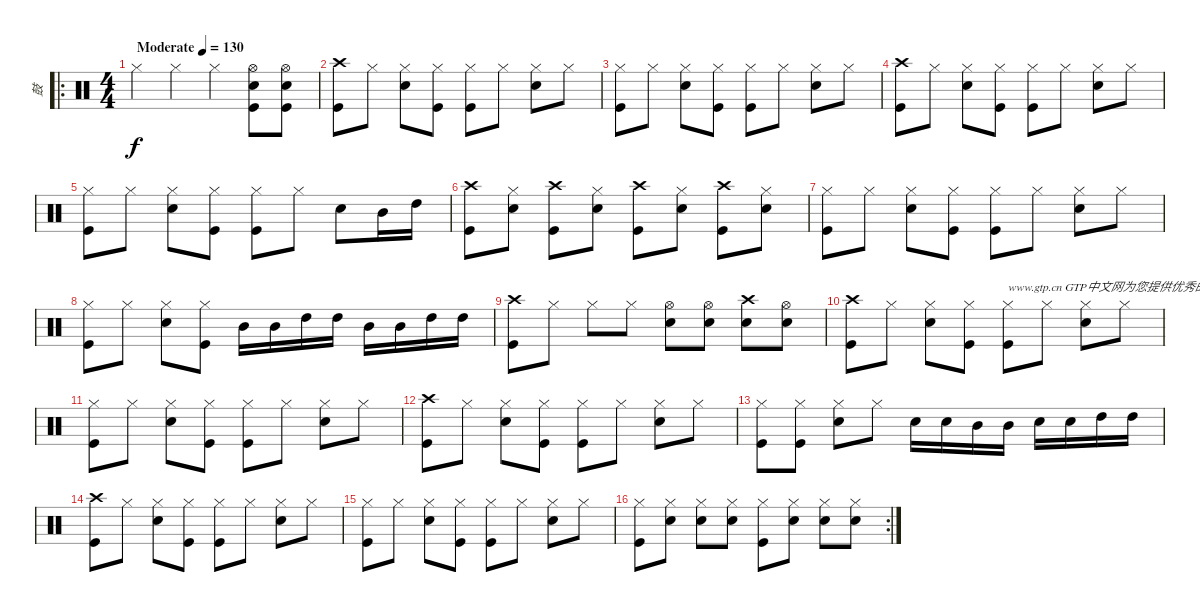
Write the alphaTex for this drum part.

\track ("鼓" "鼓") {instrument percussion}
\staff {score}
\articulation defaults
\ro
\ts (4 4)
\tempo (130 "Moderate")
\clef neutral
\ks c "Hi-Hat (closed)".4{dy f} "Hi-Hat (closed)".4 "Hi-Hat (closed)".4
("Hi-Hat (open)" "Snare (hit) 2" "Kick (hit)").8 ("Hi-Hat (open)" "Snare (hit) 2" "Kick (hit)").8 |
("Crash high (hit)" "Kick (hit)").8 "Hi-Hat (closed)".8 ("Hi-Hat (closed)" "Snare (hit) 2").8 ("Hi-Hat (closed)" "Kick (hit)").8 ("Hi-Hat (closed)" "Kick (hit)").8 "Hi-Hat (closed)".8 ("Hi-Hat (closed)" "Snare (hit) 2").8 "Hi-Hat (closed)".8 |
("Hi-Hat (closed)" "Kick (hit)").8 "Hi-Hat (closed)".8 ("Hi-Hat (closed)" "Snare (hit) 2").8 ("Hi-Hat (closed)" "Kick (hit)").8 ("Hi-Hat (closed)" "Kick (hit)").8 "Hi-Hat (closed)".8 ("Hi-Hat (closed)" "Snare (hit) 2").8 "Hi-Hat (closed)".8 |
("Crash high (hit)" "Kick (hit)").8 "Hi-Hat (closed)".8 ("Hi-Hat (closed)" "Snare (hit) 2").8 ("Hi-Hat (closed)" "Kick (hit)").8 ("Hi-Hat (closed)" "Kick (hit)").8 "Hi-Hat (closed)".8 ("Hi-Hat (closed)" "Snare (hit) 2").8 "Hi-Hat (closed)".8 |
("Hi-Hat (closed)" "Kick (hit)").8 "Hi-Hat (closed)".8 ("Hi-Hat (closed)" "Snare (hit) 2").8 ("Hi-Hat (closed)" "Kick (hit)").8 ("Hi-Hat (closed)" "Kick (hit)").8 "Hi-Hat (closed)".8 "Snare (hit) 2".8 "Mid Tom (hit)".16 "High Tom (hit)".16 |
("Crash high (hit)" "Kick (hit)").8 ("Hi-Hat (closed)" "Snare (hit) 2").8 ("Crash high (hit)" "Kick (hit)").8 ("Hi-Hat (closed)" "Snare (hit) 2").8 ("Crash high (hit)" "Kick (hit)").8 ("Hi-Hat (closed)" "Snare (hit) 2").8 ("Crash high (hit)" "Kick (hit)").8 ("Hi-Hat (closed)" "Snare (hit) 2").8 |
("Hi-Hat (closed)" "Kick (hit)").8 "Hi-Hat (closed)".8 ("Hi-Hat (closed)" "Snare (hit) 2").8 ("Hi-Hat (closed)" "Kick (hit)").8 ("Hi-Hat (closed)" "Kick (hit)").8 "Hi-Hat (closed)".8 ("Hi-Hat (closed)" "Snare (hit) 2").8 "Hi-Hat (closed)".8 |
("Hi-Hat (closed)" "Kick (hit)").8 "Hi-Hat (closed)".8 ("Hi-Hat (closed)" "Snare (hit) 2").8 ("Hi-Hat (closed)" "Kick (hit)").8 "Mid Tom (hit)".16 "Mid Tom (hit)".16 "High Tom (hit)".16 "High Tom (hit)".16 "Mid Tom (hit)".16 "Mid Tom (hit)".16 "High Tom (hit)".16 "High Tom (hit)".16 |
("Crash high (hit)" "Kick (hit)").8 "Hi-Hat (closed)".8 "Hi-Hat (closed)".8 "Hi-Hat (closed)".8 ("Hi-Hat (open)" "Snare (hit) 2").8 ("Hi-Hat (open)" "Snare (hit) 2").8 ("Crash high (hit)" "Snare (hit) 2").8 ("Hi-Hat (open)" "Snare (hit) 2").8 |
("Crash high (hit)" "Kick (hit)").8 "Hi-Hat (closed)".8 ("Hi-Hat (closed)" "Snare (hit) 2").8 ("Hi-Hat (closed)" "Kick (hit)").8 ("Hi-Hat (closed)" "Kick (hit)").8{txt "www.gtp.cn GTP中文网为您提供优秀的谱子"} "Hi-Hat (closed)".8 ("Hi-Hat (closed)" "Snare (hit) 2").8 "Hi-Hat (closed)".8 |
("Hi-Hat (closed)" "Kick (hit)").8 "Hi-Hat (closed)".8 ("Hi-Hat (closed)" "Snare (hit) 2").8 ("Hi-Hat (closed)" "Kick (hit)").8 ("Hi-Hat (closed)" "Kick (hit)").8 "Hi-Hat (closed)".8 ("Hi-Hat (closed)" "Snare (hit) 2").8 "Hi-Hat (closed)".8 |
("Crash high (hit)" "Kick (hit)").8 "Hi-Hat (closed)".8 ("Hi-Hat (closed)" "Snare (hit) 2").8 ("Hi-Hat (closed)" "Kick (hit)").8 ("Hi-Hat (closed)" "Kick (hit)").8 "Hi-Hat (closed)".8 ("Hi-Hat (closed)" "Snare (hit) 2").8 "Hi-Hat (closed)".8 |
("Hi-Hat (closed)" "Kick (hit)").8 ("Hi-Hat (closed)" "Kick (hit)").8 ("Hi-Hat (closed)" "Snare (hit) 2").8 "Hi-Hat (closed)".8 "Snare (hit) 2".16 "Snare (hit) 2".16 "Mid Tom (hit)".16 "Mid Tom (hit)".16 "Snare (hit) 2".16 "Snare (hit) 2".16 "High Tom (hit)".16 "High Tom (hit)".16 |
("Crash high (hit)" "Kick (hit)").8 "Hi-Hat (closed)".8 ("Hi-Hat (closed)" "Snare (hit) 2").8 ("Hi-Hat (closed)" "Kick (hit)").8 ("Hi-Hat (closed)" "Kick (hit)").8 "Hi-Hat (closed)".8 ("Hi-Hat (closed)" "Snare (hit) 2").8 "Hi-Hat (closed)".8 |
("Hi-Hat (closed)" "Kick (hit)").8 "Hi-Hat (closed)".8 ("Hi-Hat (closed)" "Snare (hit) 2").8 ("Hi-Hat (closed)" "Kick (hit)").8 ("Hi-Hat (closed)" "Kick (hit)").8 "Hi-Hat (closed)".8 ("Hi-Hat (closed)" "Snare (hit) 2").8 "Hi-Hat (closed)".8 |
\rc 2
("Hi-Hat (closed)" "Kick (hit)").8 ("Hi-Hat (closed)" "Snare (hit) 2").8 ("Hi-Hat (closed)" "Snare (hit) 2").8 ("Hi-Hat (closed)" "Snare (hit) 2").8 ("Hi-Hat (closed)" "Kick (hit)").8 ("Hi-Hat (closed)" "Snare (hit) 2").8 ("Hi-Hat (closed)" "Snare (hit) 2").8 ("Hi-Hat (closed)" "Snare (hit) 2").8
